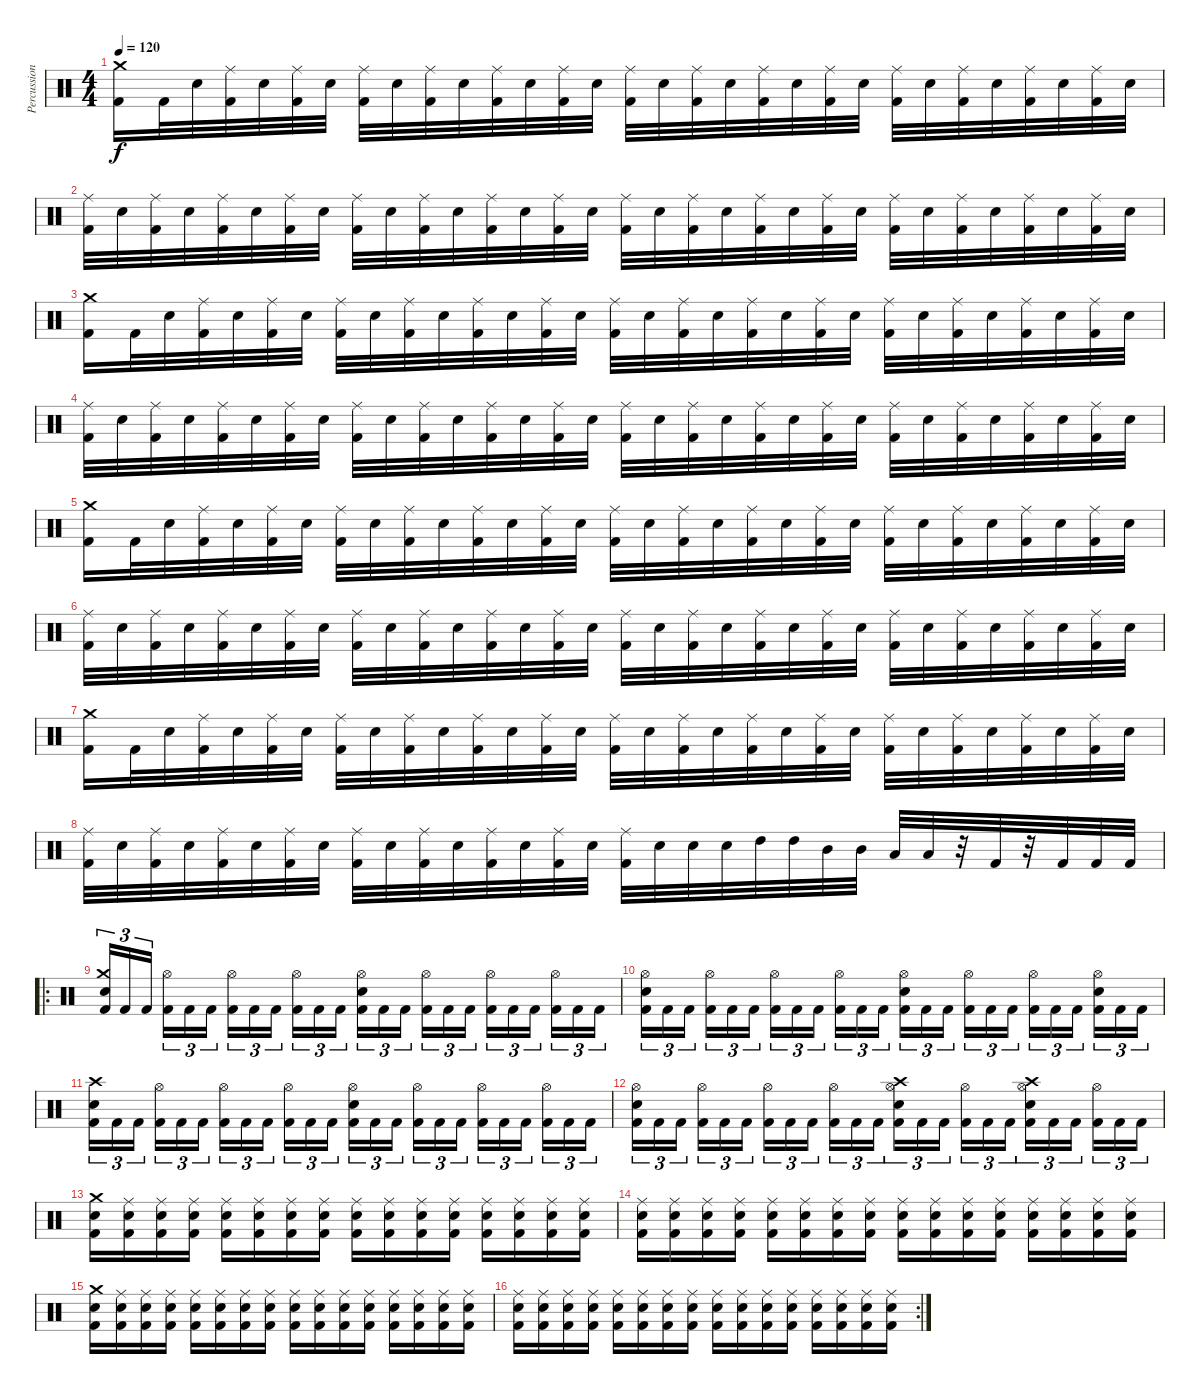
\track ("Percussions" "Percussion") {instrument percussion}
\staff {score}
\articulation defaults
\ts (4 4)
\tempo 120
\clef neutral
\ks c
("Kick (hit) 2" "Crash medium (hit)").16{dy f} "Kick (hit) 2".32 "Electric Snare (hit)".32 ("Kick (hit) 2" "Ride (middle)").32 "Electric Snare (hit)".32 ("Kick (hit) 2" "Ride (middle)").32 "Electric Snare (hit)".32 ("Kick (hit) 2" "Ride (middle)").32 "Electric Snare (hit)".32 ("Kick (hit) 2" "Ride (middle)").32 "Electric Snare (hit)".32 ("Kick (hit) 2" "Ride (middle)").32 "Electric Snare (hit)".32 ("Kick (hit) 2" "Ride (middle)").32 "Electric Snare (hit)".32 ("Kick (hit) 2" "Ride (middle)").32 "Electric Snare (hit)".32 ("Kick (hit) 2" "Ride (middle)").32 "Electric Snare (hit)".32 ("Kick (hit) 2" "Ride (middle)").32 "Electric Snare (hit)".32 ("Kick (hit) 2" "Ride (middle)").32 "Electric Snare (hit)".32 ("Kick (hit) 2" "Ride (middle)").32 "Electric Snare (hit)".32 ("Kick (hit) 2" "Ride (middle)").32 "Electric Snare (hit)".32 ("Kick (hit) 2" "Ride (middle)").32 "Electric Snare (hit)".32 ("Kick (hit) 2" "Ride (middle)").32 "Electric Snare (hit)".32 |
("Kick (hit) 2" "Ride (middle)").32 "Electric Snare (hit)".32 ("Kick (hit) 2" "Ride (middle)").32 "Electric Snare (hit)".32 ("Kick (hit) 2" "Ride (middle)").32 "Electric Snare (hit)".32 ("Kick (hit) 2" "Ride (middle)").32 "Electric Snare (hit)".32 ("Kick (hit) 2" "Ride (middle)").32 "Electric Snare (hit)".32 ("Kick (hit) 2" "Ride (middle)").32 "Electric Snare (hit)".32 ("Kick (hit) 2" "Ride (middle)").32 "Electric Snare (hit)".32 ("Kick (hit) 2" "Ride (middle)").32 "Electric Snare (hit)".32 ("Kick (hit) 2" "Ride (middle)").32 "Electric Snare (hit)".32 ("Kick (hit) 2" "Ride (middle)").32 "Electric Snare (hit)".32 ("Kick (hit) 2" "Ride (middle)").32 "Electric Snare (hit)".32 ("Kick (hit) 2" "Ride (middle)").32 "Electric Snare (hit)".32 ("Kick (hit) 2" "Ride (middle)").32 "Electric Snare (hit)".32 ("Kick (hit) 2" "Ride (middle)").32 "Electric Snare (hit)".32 ("Kick (hit) 2" "Ride (middle)").32 "Electric Snare (hit)".32 ("Kick (hit) 2" "Ride (middle)").32 "Electric Snare (hit)".32 |
("Kick (hit) 2" "Crash medium (hit)").16 "Kick (hit) 2".32 "Electric Snare (hit)".32 ("Kick (hit) 2" "Ride (middle)").32 "Electric Snare (hit)".32 ("Kick (hit) 2" "Ride (middle)").32 "Electric Snare (hit)".32 ("Kick (hit) 2" "Ride (middle)").32 "Electric Snare (hit)".32 ("Kick (hit) 2" "Ride (middle)").32 "Electric Snare (hit)".32 ("Kick (hit) 2" "Ride (middle)").32 "Electric Snare (hit)".32 ("Kick (hit) 2" "Ride (middle)").32 "Electric Snare (hit)".32 ("Kick (hit) 2" "Ride (middle)").32 "Electric Snare (hit)".32 ("Kick (hit) 2" "Ride (middle)").32 "Electric Snare (hit)".32 ("Kick (hit) 2" "Ride (middle)").32 "Electric Snare (hit)".32 ("Kick (hit) 2" "Ride (middle)").32 "Electric Snare (hit)".32 ("Kick (hit) 2" "Ride (middle)").32 "Electric Snare (hit)".32 ("Kick (hit) 2" "Ride (middle)").32 "Electric Snare (hit)".32 ("Kick (hit) 2" "Ride (middle)").32 "Electric Snare (hit)".32 ("Kick (hit) 2" "Ride (middle)").32 "Electric Snare (hit)".32 |
("Kick (hit) 2" "Ride (middle)").32 "Electric Snare (hit)".32 ("Kick (hit) 2" "Ride (middle)").32 "Electric Snare (hit)".32 ("Kick (hit) 2" "Ride (middle)").32 "Electric Snare (hit)".32 ("Kick (hit) 2" "Ride (middle)").32 "Electric Snare (hit)".32 ("Kick (hit) 2" "Ride (middle)").32 "Electric Snare (hit)".32 ("Kick (hit) 2" "Ride (middle)").32 "Electric Snare (hit)".32 ("Kick (hit) 2" "Ride (middle)").32 "Electric Snare (hit)".32 ("Kick (hit) 2" "Ride (middle)").32 "Electric Snare (hit)".32 ("Kick (hit) 2" "Ride (middle)").32 "Electric Snare (hit)".32 ("Kick (hit) 2" "Ride (middle)").32 "Electric Snare (hit)".32 ("Kick (hit) 2" "Ride (middle)").32 "Electric Snare (hit)".32 ("Kick (hit) 2" "Ride (middle)").32 "Electric Snare (hit)".32 ("Kick (hit) 2" "Ride (middle)").32 "Electric Snare (hit)".32 ("Kick (hit) 2" "Ride (middle)").32 "Electric Snare (hit)".32 ("Kick (hit) 2" "Ride (middle)").32 "Electric Snare (hit)".32 ("Kick (hit) 2" "Ride (middle)").32 "Electric Snare (hit)".32 |
("Kick (hit) 2" "Crash medium (hit)").16 "Kick (hit) 2".32 "Electric Snare (hit)".32 ("Kick (hit) 2" "Ride (middle)").32 "Electric Snare (hit)".32 ("Kick (hit) 2" "Ride (middle)").32 "Electric Snare (hit)".32 ("Kick (hit) 2" "Ride (middle)").32 "Electric Snare (hit)".32 ("Kick (hit) 2" "Ride (middle)").32 "Electric Snare (hit)".32 ("Kick (hit) 2" "Ride (middle)").32 "Electric Snare (hit)".32 ("Kick (hit) 2" "Ride (middle)").32 "Electric Snare (hit)".32 ("Kick (hit) 2" "Ride (middle)").32 "Electric Snare (hit)".32 ("Kick (hit) 2" "Ride (middle)").32 "Electric Snare (hit)".32 ("Kick (hit) 2" "Ride (middle)").32 "Electric Snare (hit)".32 ("Kick (hit) 2" "Ride (middle)").32 "Electric Snare (hit)".32 ("Kick (hit) 2" "Ride (middle)").32 "Electric Snare (hit)".32 ("Kick (hit) 2" "Ride (middle)").32 "Electric Snare (hit)".32 ("Kick (hit) 2" "Ride (middle)").32 "Electric Snare (hit)".32 ("Kick (hit) 2" "Ride (middle)").32 "Electric Snare (hit)".32 |
("Kick (hit) 2" "Ride (middle)").32 "Electric Snare (hit)".32 ("Kick (hit) 2" "Ride (middle)").32 "Electric Snare (hit)".32 ("Kick (hit) 2" "Ride (middle)").32 "Electric Snare (hit)".32 ("Kick (hit) 2" "Ride (middle)").32 "Electric Snare (hit)".32 ("Kick (hit) 2" "Ride (middle)").32 "Electric Snare (hit)".32 ("Kick (hit) 2" "Ride (middle)").32 "Electric Snare (hit)".32 ("Kick (hit) 2" "Ride (middle)").32 "Electric Snare (hit)".32 ("Kick (hit) 2" "Ride (middle)").32 "Electric Snare (hit)".32 ("Kick (hit) 2" "Ride (middle)").32 "Electric Snare (hit)".32 ("Kick (hit) 2" "Ride (middle)").32 "Electric Snare (hit)".32 ("Kick (hit) 2" "Ride (middle)").32 "Electric Snare (hit)".32 ("Kick (hit) 2" "Ride (middle)").32 "Electric Snare (hit)".32 ("Kick (hit) 2" "Ride (middle)").32 "Electric Snare (hit)".32 ("Kick (hit) 2" "Ride (middle)").32 "Electric Snare (hit)".32 ("Kick (hit) 2" "Ride (middle)").32 "Electric Snare (hit)".32 ("Kick (hit) 2" "Ride (middle)").32 "Electric Snare (hit)".32 |
("Kick (hit) 2" "Crash medium (hit)").16 "Kick (hit) 2".32 "Electric Snare (hit)".32 ("Kick (hit) 2" "Ride (middle)").32 "Electric Snare (hit)".32 ("Kick (hit) 2" "Ride (middle)").32 "Electric Snare (hit)".32 ("Kick (hit) 2" "Ride (middle)").32 "Electric Snare (hit)".32 ("Kick (hit) 2" "Ride (middle)").32 "Electric Snare (hit)".32 ("Kick (hit) 2" "Ride (middle)").32 "Electric Snare (hit)".32 ("Kick (hit) 2" "Ride (middle)").32 "Electric Snare (hit)".32 ("Kick (hit) 2" "Ride (middle)").32 "Electric Snare (hit)".32 ("Kick (hit) 2" "Ride (middle)").32 "Electric Snare (hit)".32 ("Kick (hit) 2" "Ride (middle)").32 "Electric Snare (hit)".32 ("Kick (hit) 2" "Ride (middle)").32 "Electric Snare (hit)".32 ("Kick (hit) 2" "Ride (middle)").32 "Electric Snare (hit)".32 ("Kick (hit) 2" "Ride (middle)").32 "Electric Snare (hit)".32 ("Kick (hit) 2" "Ride (middle)").32 "Electric Snare (hit)".32 ("Kick (hit) 2" "Ride (middle)").32 "Electric Snare (hit)".32 |
("Kick (hit) 2" "Ride (middle)").32 "Electric Snare (hit)".32 ("Kick (hit) 2" "Ride (middle)").32 "Electric Snare (hit)".32 ("Kick (hit) 2" "Ride (middle)").32 "Electric Snare (hit)".32 ("Kick (hit) 2" "Ride (middle)").32 "Electric Snare (hit)".32 ("Kick (hit) 2" "Ride (middle)").32 "Electric Snare (hit)".32 ("Kick (hit) 2" "Ride (middle)").32 "Electric Snare (hit)".32 ("Kick (hit) 2" "Ride (middle)").32 "Electric Snare (hit)".32 ("Kick (hit) 2" "Ride (middle)").32 "Electric Snare (hit)".32 ("Kick (hit) 2" "Ride (middle)").32 "Electric Snare (hit)".32 "Electric Snare (hit)".32 "Electric Snare (hit)".32 "High Tom (hit)".32 "High Tom (hit)".32 "Mid Tom (hit)".32 "Mid Tom (hit)".32 "Low Tom (hit)".32 "Low Tom (hit)".32 r.32 "Kick (hit) 2".32 r.32 "Kick (hit) 2".32 "Kick (hit) 2".32 "Kick (hit) 2".32 |
\ro
("Crash medium (hit)" "Electric Snare (hit)" "Kick (hit) 2").16{tu (3 2)} "Kick (hit) 2".16{tu (3 2)} "Kick (hit) 2".16{tu (3 2) beam splitsecondary} ("Hi-Hat (open)" "Kick (hit) 2").16{tu (3 2)} "Kick (hit) 2".16{tu (3 2)} "Kick (hit) 2".16{tu (3 2)} ("Hi-Hat (open)" "Kick (hit) 2").16{tu (3 2)} "Kick (hit) 2".16{tu (3 2)} "Kick (hit) 2".16{tu (3 2) beam splitsecondary} ("Hi-Hat (open)" "Kick (hit) 2").16{tu (3 2)} "Kick (hit) 2".16{tu (3 2)} "Kick (hit) 2".16{tu (3 2)} ("Hi-Hat (open)" "Electric Snare (hit)" "Kick (hit) 2").16{tu (3 2)} "Kick (hit) 2".16{tu (3 2)} "Kick (hit) 2".16{tu (3 2) beam splitsecondary} ("Hi-Hat (open)" "Kick (hit) 2").16{tu (3 2)} "Kick (hit) 2".16{tu (3 2)} "Kick (hit) 2".16{tu (3 2)} ("Hi-Hat (open)" "Kick (hit) 2").16{tu (3 2)} "Kick (hit) 2".16{tu (3 2)} "Kick (hit) 2".16{tu (3 2) beam splitsecondary} ("Hi-Hat (open)" "Kick (hit) 2").16{tu (3 2)} "Kick (hit) 2".16{tu (3 2)} "Kick (hit) 2".16{tu (3 2)} |
("Hi-Hat (open)" "Electric Snare (hit)" "Kick (hit) 2").16{tu (3 2)} "Kick (hit) 2".16{tu (3 2)} "Kick (hit) 2".16{tu (3 2) beam splitsecondary} ("Hi-Hat (open)" "Kick (hit) 2").16{tu (3 2)} "Kick (hit) 2".16{tu (3 2)} "Kick (hit) 2".16{tu (3 2)} ("Hi-Hat (open)" "Kick (hit) 2").16{tu (3 2)} "Kick (hit) 2".16{tu (3 2)} "Kick (hit) 2".16{tu (3 2) beam splitsecondary} ("Hi-Hat (open)" "Kick (hit) 2").16{tu (3 2)} "Kick (hit) 2".16{tu (3 2)} "Kick (hit) 2".16{tu (3 2)} ("Hi-Hat (open)" "Electric Snare (hit)" "Kick (hit) 2").16{tu (3 2)} "Kick (hit) 2".16{tu (3 2)} "Kick (hit) 2".16{tu (3 2) beam splitsecondary} ("Hi-Hat (open)" "Kick (hit) 2").16{tu (3 2)} "Kick (hit) 2".16{tu (3 2)} "Kick (hit) 2".16{tu (3 2)} ("Hi-Hat (open)" "Kick (hit) 2").16{tu (3 2)} "Kick (hit) 2".16{tu (3 2)} "Kick (hit) 2".16{tu (3 2) beam splitsecondary} ("Hi-Hat (open)" "Electric Snare (hit)" "Kick (hit) 2").16{tu (3 2)} "Kick (hit) 2".16{tu (3 2)} "Kick (hit) 2".16{tu (3 2)} |
("Crash high (hit)" "Electric Snare (hit)" "Kick (hit) 2").16{tu (3 2)} "Kick (hit) 2".16{tu (3 2)} "Kick (hit) 2".16{tu (3 2) beam splitsecondary} ("Hi-Hat (open)" "Kick (hit) 2").16{tu (3 2)} "Kick (hit) 2".16{tu (3 2)} "Kick (hit) 2".16{tu (3 2)} ("Hi-Hat (open)" "Kick (hit) 2").16{tu (3 2)} "Kick (hit) 2".16{tu (3 2)} "Kick (hit) 2".16{tu (3 2) beam splitsecondary} ("Hi-Hat (open)" "Kick (hit) 2").16{tu (3 2)} "Kick (hit) 2".16{tu (3 2)} "Kick (hit) 2".16{tu (3 2)} ("Hi-Hat (open)" "Electric Snare (hit)" "Kick (hit) 2").16{tu (3 2)} "Kick (hit) 2".16{tu (3 2)} "Kick (hit) 2".16{tu (3 2) beam splitsecondary} ("Hi-Hat (open)" "Kick (hit) 2").16{tu (3 2)} "Kick (hit) 2".16{tu (3 2)} "Kick (hit) 2".16{tu (3 2)} ("Hi-Hat (open)" "Kick (hit) 2").16{tu (3 2)} "Kick (hit) 2".16{tu (3 2)} "Kick (hit) 2".16{tu (3 2) beam splitsecondary} ("Hi-Hat (open)" "Kick (hit) 2").16{tu (3 2)} "Kick (hit) 2".16{tu (3 2)} "Kick (hit) 2".16{tu (3 2)} |
("Hi-Hat (open)" "Electric Snare (hit)" "Kick (hit) 2").16{tu (3 2)} "Kick (hit) 2".16{tu (3 2)} "Kick (hit) 2".16{tu (3 2) beam splitsecondary} ("Hi-Hat (open)" "Kick (hit) 2").16{tu (3 2)} "Kick (hit) 2".16{tu (3 2)} "Kick (hit) 2".16{tu (3 2)} ("Hi-Hat (open)" "Kick (hit) 2").16{tu (3 2)} "Kick (hit) 2".16{tu (3 2)} "Kick (hit) 2".16{tu (3 2) beam splitsecondary} ("Hi-Hat (open)" "Kick (hit) 2").16{tu (3 2)} "Kick (hit) 2".16{tu (3 2)} "Kick (hit) 2".16{tu (3 2)} ("Crash high (hit)" "Hi-Hat (open)" "Electric Snare (hit)" "Kick (hit) 2").16{tu (3 2)} "Kick (hit) 2".16{tu (3 2)} "Kick (hit) 2".16{tu (3 2) beam splitsecondary} ("Hi-Hat (open)" "Kick (hit) 2").16{tu (3 2)} "Kick (hit) 2".16{tu (3 2)} "Kick (hit) 2".16{tu (3 2)} ("Crash high (hit)" "Hi-Hat (open)" "Electric Snare (hit)" "Kick (hit) 2").16{tu (3 2)} "Kick (hit) 2".16{tu (3 2)} "Kick (hit) 2".16{tu (3 2) beam splitsecondary} ("Hi-Hat (open)" "Kick (hit) 2").16{tu (3 2)} "Kick (hit) 2".16{tu (3 2)} "Kick (hit) 2".16{tu (3 2)} |
("Crash medium (hit)" "Electric Snare (hit)" "Kick (hit) 2").16 ("Ride (middle)" "Electric Snare (hit)" "Kick (hit) 2").16 ("Ride (middle)" "Electric Snare (hit)" "Kick (hit) 2").16 ("Ride (middle)" "Electric Snare (hit)" "Kick (hit) 2").16 ("Ride (middle)" "Electric Snare (hit)" "Kick (hit) 2").16 ("Ride (middle)" "Electric Snare (hit)" "Kick (hit) 2").16 ("Ride (middle)" "Electric Snare (hit)" "Kick (hit) 2").16 ("Ride (middle)" "Electric Snare (hit)" "Kick (hit) 2").16 ("Ride (middle)" "Electric Snare (hit)" "Kick (hit) 2").16 ("Ride (middle)" "Electric Snare (hit)" "Kick (hit) 2").16 ("Ride (middle)" "Electric Snare (hit)" "Kick (hit) 2").16 ("Ride (middle)" "Electric Snare (hit)" "Kick (hit) 2").16 ("Ride (middle)" "Electric Snare (hit)" "Kick (hit) 2").16 ("Ride (middle)" "Electric Snare (hit)" "Kick (hit) 2").16 ("Ride (middle)" "Electric Snare (hit)" "Kick (hit) 2").16 ("Ride (middle)" "Electric Snare (hit)" "Kick (hit) 2").16 |
("Ride (middle)" "Electric Snare (hit)" "Kick (hit) 2").16 ("Ride (middle)" "Electric Snare (hit)" "Kick (hit) 2").16 ("Ride (middle)" "Electric Snare (hit)" "Kick (hit) 2").16 ("Ride (middle)" "Electric Snare (hit)" "Kick (hit) 2").16 ("Ride (middle)" "Electric Snare (hit)" "Kick (hit) 2").16 ("Ride (middle)" "Electric Snare (hit)" "Kick (hit) 2").16 ("Ride (middle)" "Electric Snare (hit)" "Kick (hit) 2").16 ("Ride (middle)" "Electric Snare (hit)" "Kick (hit) 2").16 ("Ride (middle)" "Electric Snare (hit)" "Kick (hit) 2").16 ("Ride (middle)" "Electric Snare (hit)" "Kick (hit) 2").16 ("Ride (middle)" "Electric Snare (hit)" "Kick (hit) 2").16 ("Ride (middle)" "Electric Snare (hit)" "Kick (hit) 2").16 ("Ride (middle)" "Electric Snare (hit)" "Kick (hit) 2").16 ("Ride (middle)" "Electric Snare (hit)" "Kick (hit) 2").16 ("Ride (middle)" "Electric Snare (hit)" "Kick (hit) 2").16 ("Ride (middle)" "Electric Snare (hit)" "Kick (hit) 2").16 |
("Crash medium (hit)" "Electric Snare (hit)" "Kick (hit) 2").16 ("Ride (middle)" "Electric Snare (hit)" "Kick (hit) 2").16 ("Ride (middle)" "Electric Snare (hit)" "Kick (hit) 2").16 ("Ride (middle)" "Electric Snare (hit)" "Kick (hit) 2").16 ("Ride (middle)" "Electric Snare (hit)" "Kick (hit) 2").16 ("Ride (middle)" "Electric Snare (hit)" "Kick (hit) 2").16 ("Ride (middle)" "Electric Snare (hit)" "Kick (hit) 2").16 ("Ride (middle)" "Electric Snare (hit)" "Kick (hit) 2").16 ("Ride (middle)" "Electric Snare (hit)" "Kick (hit) 2").16 ("Ride (middle)" "Electric Snare (hit)" "Kick (hit) 2").16 ("Ride (middle)" "Electric Snare (hit)" "Kick (hit) 2").16 ("Ride (middle)" "Electric Snare (hit)" "Kick (hit) 2").16 ("Ride (middle)" "Electric Snare (hit)" "Kick (hit) 2").16 ("Ride (middle)" "Electric Snare (hit)" "Kick (hit) 2").16 ("Ride (middle)" "Electric Snare (hit)" "Kick (hit) 2").16 ("Ride (middle)" "Electric Snare (hit)" "Kick (hit) 2").16 |
\rc 2
("Ride (middle)" "Electric Snare (hit)" "Kick (hit) 2").16 ("Ride (middle)" "Electric Snare (hit)" "Kick (hit) 2").16 ("Ride (middle)" "Electric Snare (hit)" "Kick (hit) 2").16 ("Ride (middle)" "Electric Snare (hit)" "Kick (hit) 2").16 ("Ride (middle)" "Electric Snare (hit)" "Kick (hit) 2").16 ("Ride (middle)" "Electric Snare (hit)" "Kick (hit) 2").16 ("Ride (middle)" "Electric Snare (hit)" "Kick (hit) 2").16 ("Ride (middle)" "Electric Snare (hit)" "Kick (hit) 2").16 ("Ride (middle)" "Electric Snare (hit)" "Kick (hit) 2").16 ("Ride (middle)" "Electric Snare (hit)" "Kick (hit) 2").16 ("Ride (middle)" "Electric Snare (hit)" "Kick (hit) 2").16 ("Ride (middle)" "Electric Snare (hit)" "Kick (hit) 2").16 ("Ride (middle)" "Electric Snare (hit)" "Kick (hit) 2").16 ("Ride (middle)" "Electric Snare (hit)" "Kick (hit) 2").16 ("Ride (middle)" "Electric Snare (hit)" "Kick (hit) 2").16 ("Ride (middle)" "Electric Snare (hit)" "Kick (hit) 2").16
